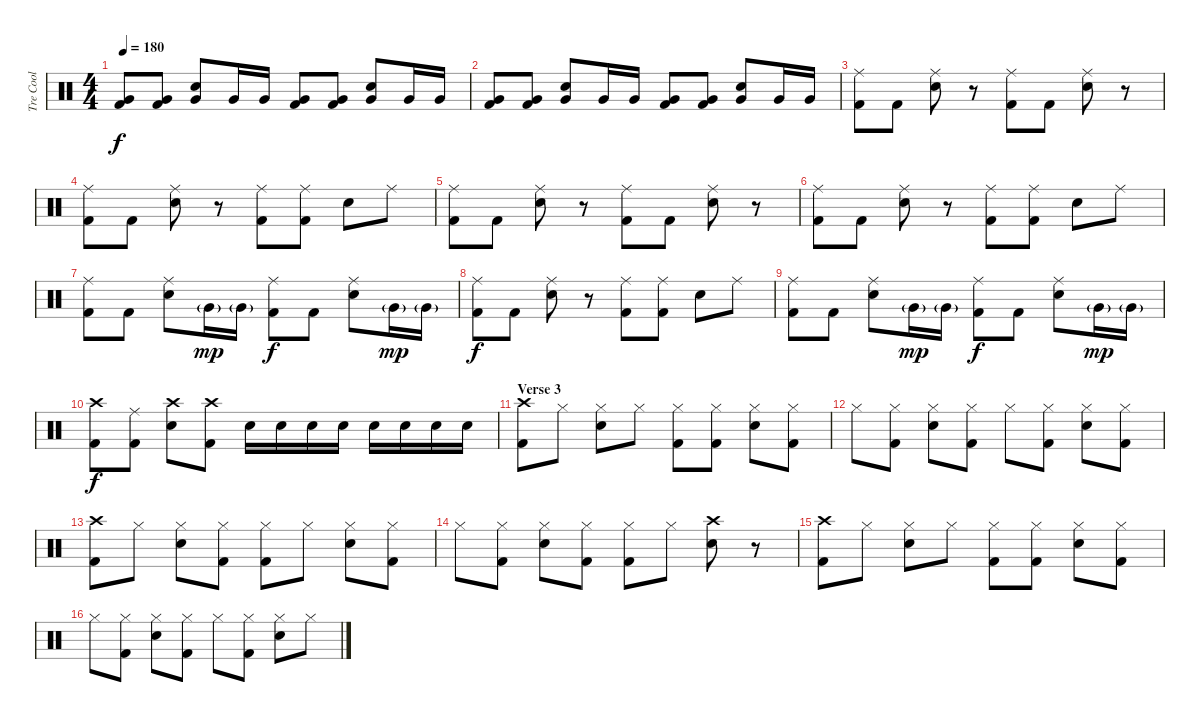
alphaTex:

\track ("Tre Cool" "Tre Cool") {instrument percussion}
\staff {score}
\articulation defaults
\ts (4 4)
\tempo 180
\clef neutral
\ks c
("Very Low Tom (hit)" "Kick (hit) 2").8{dy f} ("Very Low Tom (hit)" "Kick (hit) 2").8 ("Electric Snare (hit)" "Very Low Tom (hit)").8 "Very Low Tom (hit)".16 "Very Low Tom (hit)".16 ("Very Low Tom (hit)" "Kick (hit) 2").8 ("Very Low Tom (hit)" "Kick (hit) 2").8 ("Electric Snare (hit)" "Very Low Tom (hit)").8 "Very Low Tom (hit)".16 "Very Low Tom (hit)".16 |
("Very Low Tom (hit)" "Kick (hit) 2").8 ("Very Low Tom (hit)" "Kick (hit) 2").8 ("Electric Snare (hit)" "Very Low Tom (hit)").8 "Very Low Tom (hit)".16 "Very Low Tom (hit)".16 ("Very Low Tom (hit)" "Kick (hit) 2").8 ("Very Low Tom (hit)" "Kick (hit) 2").8 ("Electric Snare (hit)" "Very Low Tom (hit)").8 "Very Low Tom (hit)".16 "Very Low Tom (hit)".16 |
("Ride (middle)" "Kick (hit) 2").8 "Kick (hit) 2".8 ("Ride (middle)" "Electric Snare (hit)").8 r.8 ("Ride (middle)" "Kick (hit) 2").8 "Kick (hit) 2".8 ("Ride (middle)" "Electric Snare (hit)").8 r.8 |
("Ride (middle)" "Kick (hit) 2").8 "Kick (hit) 2".8 ("Ride (middle)" "Electric Snare (hit)").8 r.8 ("Ride (middle)" "Kick (hit) 2").8 ("Ride (middle)" "Kick (hit) 2").8 "Electric Snare (hit)".8 "Ride (middle)".8 |
("Ride (middle)" "Kick (hit) 2").8 "Kick (hit) 2".8 ("Ride (middle)" "Electric Snare (hit)").8 r.8 ("Ride (middle)" "Kick (hit) 2").8 "Kick (hit) 2".8 ("Ride (middle)" "Electric Snare (hit)").8 r.8 |
("Ride (middle)" "Kick (hit) 2").8 "Kick (hit) 2".8 ("Ride (middle)" "Electric Snare (hit)").8 r.8 ("Ride (middle)" "Kick (hit) 2").8 ("Ride (middle)" "Kick (hit) 2").8 "Electric Snare (hit)".8 "Ride (middle)".8 |
("Ride (middle)" "Kick (hit) 2").8 "Kick (hit) 2".8 ("Ride (middle)" "Electric Snare (hit)").8 "Very Low Tom (hit)"{g}.16{dy mp} "Very Low Tom (hit)"{g}.16 ("Ride (middle)" "Kick (hit) 2").8{dy f} "Kick (hit) 2".8 ("Ride (middle)" "Electric Snare (hit)").8 "Very Low Tom (hit)"{g}.16{dy mp} "Very Low Tom (hit)"{g}.16 |
("Ride (middle)" "Kick (hit) 2").8{dy f} "Kick (hit) 2".8 ("Ride (middle)" "Electric Snare (hit)").8 r.8 ("Ride (middle)" "Kick (hit) 2").8 ("Ride (middle)" "Kick (hit) 2").8 "Electric Snare (hit)".8 "Ride (middle)".8 |
("Ride (middle)" "Kick (hit) 2").8 "Kick (hit) 2".8 ("Ride (middle)" "Electric Snare (hit)").8 "Very Low Tom (hit)"{g}.16{dy mp} "Very Low Tom (hit)"{g}.16 ("Ride (middle)" "Kick (hit) 2").8{dy f} "Kick (hit) 2".8 ("Ride (middle)" "Electric Snare (hit)").8 "Very Low Tom (hit)"{g}.16{dy mp} "Very Low Tom (hit)"{g}.16 |
("Crash high (hit)" "Kick (hit) 2").8{dy f} ("Ride (middle)" "Kick (hit) 2").8 ("Crash high (hit)" "Electric Snare (hit)").8 ("Crash high (hit)" "Kick (hit) 2").8 "Electric Snare (hit)".16 "Electric Snare (hit)".16 "Electric Snare (hit)".16 "Electric Snare (hit)".16 "Electric Snare (hit)".16 "Electric Snare (hit)".16 "Electric Snare (hit)".16 "Electric Snare (hit)".16 |
\section ("" "Verse 3")
("Crash high (hit)" "Kick (hit) 2").8 "Hi-Hat (closed)".8 ("Hi-Hat (closed)" "Electric Snare (hit)").8 "Hi-Hat (closed)".8 ("Hi-Hat (closed)" "Kick (hit) 2").8 ("Hi-Hat (closed)" "Kick (hit) 2").8 ("Hi-Hat (closed)" "Electric Snare (hit)").8 ("Hi-Hat (closed)" "Kick (hit) 2").8 |
"Hi-Hat (closed)".8 ("Hi-Hat (closed)" "Kick (hit) 2").8 ("Hi-Hat (closed)" "Electric Snare (hit)").8 ("Hi-Hat (closed)" "Kick (hit) 2").8 "Hi-Hat (closed)".8 ("Hi-Hat (closed)" "Kick (hit) 2").8 ("Hi-Hat (closed)" "Electric Snare (hit)").8 ("Hi-Hat (closed)" "Kick (hit) 2").8 |
("Crash high (hit)" "Kick (hit) 2").8 "Hi-Hat (closed)".8 ("Hi-Hat (closed)" "Electric Snare (hit)").8 ("Hi-Hat (closed)" "Kick (hit) 2").8 ("Hi-Hat (closed)" "Kick (hit) 2").8 "Hi-Hat (closed)".8 ("Hi-Hat (closed)" "Electric Snare (hit)").8 ("Hi-Hat (closed)" "Kick (hit) 2").8 |
"Hi-Hat (closed)".8 ("Hi-Hat (closed)" "Kick (hit) 2").8 ("Hi-Hat (closed)" "Electric Snare (hit)").8 ("Hi-Hat (closed)" "Kick (hit) 2").8 ("Hi-Hat (closed)" "Kick (hit) 2").8 "Hi-Hat (closed)".8 ("Crash high (hit)" "Electric Snare (hit)").8 r.8 |
("Crash high (hit)" "Kick (hit) 2").8 "Hi-Hat (closed)".8 ("Hi-Hat (closed)" "Electric Snare (hit)").8 "Hi-Hat (closed)".8 ("Hi-Hat (closed)" "Kick (hit) 2").8 ("Hi-Hat (closed)" "Kick (hit) 2").8 ("Hi-Hat (closed)" "Electric Snare (hit)").8 ("Hi-Hat (closed)" "Kick (hit) 2").8 |
"Hi-Hat (closed)".8 ("Hi-Hat (closed)" "Kick (hit) 2").8 ("Hi-Hat (closed)" "Electric Snare (hit)").8 ("Hi-Hat (closed)" "Kick (hit) 2").8 "Hi-Hat (closed)".8 ("Hi-Hat (closed)" "Kick (hit) 2").8 ("Hi-Hat (closed)" "Electric Snare (hit)").8 "Hi-Hat (closed)".8
